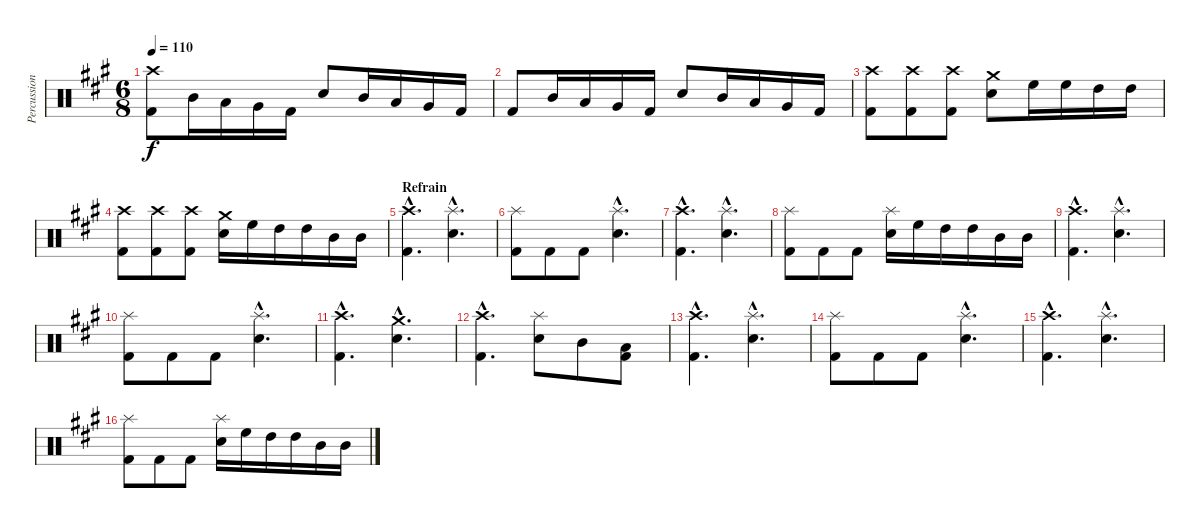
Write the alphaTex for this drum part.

\track ("Percussions" "Percussion") {instrument percussion}
\staff {score}
\articulation defaults
\ts (6 8)
\tempo 110
\clef neutral
\ks a
("Crash high (hit)" "Kick (hit) 2").8{dy f} "Mid Tom (hit)".16 "Low Tom (hit)".16 "Very Low Tom (hit)".16 "Kick (hit) 2".16 "Electric Snare (hit)".8 "Mid Tom (hit)".16 "Low Tom (hit)".16 "Very Low Tom (hit)".16 "Kick (hit) 2".16 |
"Kick (hit) 2".8 "Mid Tom (hit)".16 "Low Tom (hit)".16 "Very Low Tom (hit)".16 "Kick (hit) 2".16 "Electric Snare (hit)".8 "Mid Tom (hit)".16 "Low Tom (hit)".16 "Very Low Tom (hit)".16 "Kick (hit) 2".16 |
("Crash high (hit)" "Kick (hit) 2").8 ("Crash high (hit)" "Kick (hit) 2").8 ("Crash high (hit)" "Kick (hit) 2").8 ("Crash medium (hit)" "Electric Snare (hit)").8 "High Floor Tom (hit)".16 "High Floor Tom (hit)".16 "High Tom (hit)".16 "High Tom (hit)".16 |
("Crash high (hit)" "Kick (hit) 2").8 ("Crash high (hit)" "Kick (hit) 2").8 ("Crash high (hit)" "Kick (hit) 2").8 ("Crash medium (hit)" "Electric Snare (hit)").16 "High Floor Tom (hit)".16 "High Tom (hit)".16 "High Tom (hit)".16 "Mid Tom (hit)".16 "Mid Tom (hit)".16 |
\section ("" "Refrain")
("Crash high (hit)"{hac} "Kick (hit) 2"{hac}).4{d} ("Splash (hit)"{hac} "Electric Snare (hit)"{hac}).4{d} |
("Splash (hit)" "Kick (hit) 2").8 "Kick (hit) 2".8 "Kick (hit) 2".8 ("Splash (hit)"{hac} "Electric Snare (hit)"{hac}).4{d} |
("Crash high (hit)"{hac} "Kick (hit) 2"{hac}).4{d} ("Splash (hit)"{hac} "Electric Snare (hit)"{hac}).4{d} |
("Splash (hit)" "Kick (hit) 2").8 "Kick (hit) 2".8 "Kick (hit) 2".8 ("Splash (hit)" "Electric Snare (hit)").16 "High Floor Tom (hit)".16 "High Tom (hit)".16 "High Tom (hit)".16 "Mid Tom (hit)".16 "Mid Tom (hit)".16 |
("Crash high (hit)"{hac} "Kick (hit) 2"{hac}).4{d} ("Splash (hit)"{hac} "Electric Snare (hit)"{hac}).4{d} |
("Splash (hit)" "Kick (hit) 2").8 "Kick (hit) 2".8 "Kick (hit) 2".8 ("Splash (hit)"{hac} "Electric Snare (hit)"{hac}).4{d} |
("Crash high (hit)"{hac} "Kick (hit) 2"{hac}).4{d} ("Crash medium (hit)"{hac} "Electric Snare (hit)"{hac}).4{d} |
("Crash high (hit)"{hac} "Kick (hit) 2"{hac}).4{d} ("Splash (hit)" "Electric Snare (hit)").8 "Mid Tom (hit)".8 ("Low Tom (hit)" "Kick (hit) 2").8 |
("Crash high (hit)"{hac} "Kick (hit) 2"{hac}).4{d} ("Splash (hit)"{hac} "Electric Snare (hit)"{hac}).4{d} |
("Splash (hit)" "Kick (hit) 2").8 "Kick (hit) 2".8 "Kick (hit) 2".8 ("Splash (hit)"{hac} "Electric Snare (hit)"{hac}).4{d} |
("Crash high (hit)"{hac} "Kick (hit) 2"{hac}).4{d} ("Splash (hit)"{hac} "Electric Snare (hit)"{hac}).4{d} |
("Splash (hit)" "Kick (hit) 2").8 "Kick (hit) 2".8 "Kick (hit) 2".8 ("Splash (hit)" "Electric Snare (hit)").16 "High Floor Tom (hit)".16 "High Tom (hit)".16 "High Tom (hit)".16 "Mid Tom (hit)".16 "Mid Tom (hit)".16
